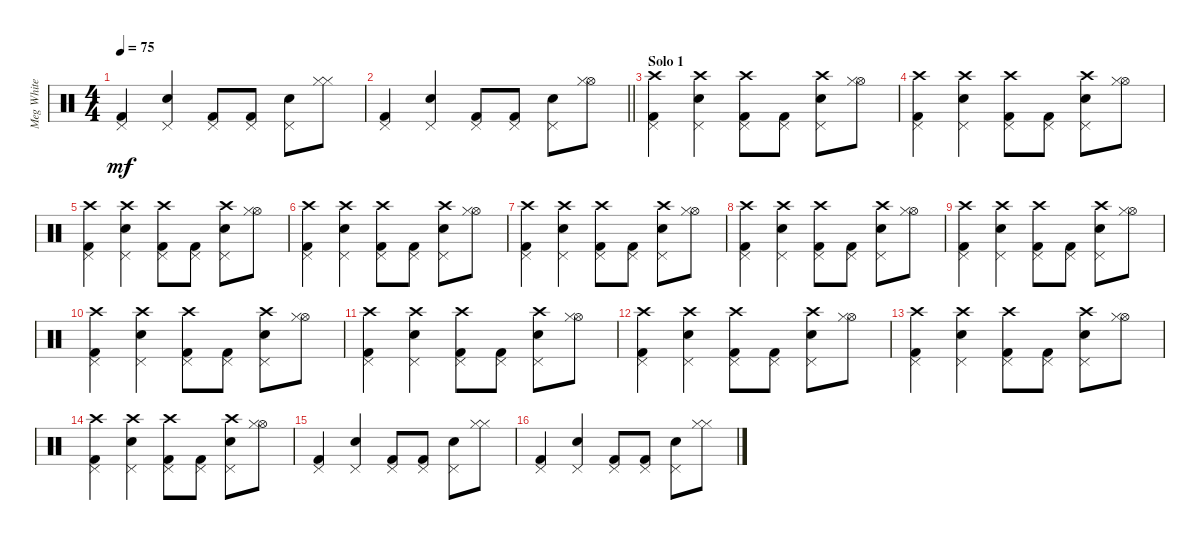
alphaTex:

\track ("Meg White" "Meg White") {instrument percussion}
\staff {score}
\articulation defaults
\ts (4 4)
\tempo 75
\clef neutral
\ks c
("Pedal Hi-Hat (hit)" "Kick (hit) 2").4{dy mf} ("Pedal Hi-Hat (hit)" "Electric Snare (hit)").4 ("Pedal Hi-Hat (hit)" "Kick (hit) 2").8 ("Pedal Hi-Hat (hit)" "Kick (hit) 2").8 ("Pedal Hi-Hat (hit)" "Electric Snare (hit)").8 ("Hi-Hat (closed)" "Hi-Hat (closed)").8 |
\barLineRight lightlight
("Pedal Hi-Hat (hit)" "Kick (hit) 2").4 ("Pedal Hi-Hat (hit)" "Electric Snare (hit)").4 ("Pedal Hi-Hat (hit)" "Kick (hit) 2").8 ("Pedal Hi-Hat (hit)" "Kick (hit) 2").8 ("Pedal Hi-Hat (hit)" "Electric Snare (hit)").8 ("Hi-Hat (open)" "Hi-Hat (closed)").8 |
\section ("" "Solo 1")
("Pedal Hi-Hat (hit)" "Kick (hit) 2" "Crash high (hit)").4 ("Pedal Hi-Hat (hit)" "Electric Snare (hit)" "Crash high (hit)").4 ("Pedal Hi-Hat (hit)" "Kick (hit) 2" "Crash high (hit)").8 ("Pedal Hi-Hat (hit)" "Kick (hit) 2").8 ("Pedal Hi-Hat (hit)" "Electric Snare (hit)" "Crash high (hit)").8 ("Hi-Hat (open)" "Hi-Hat (closed)").8 |
("Pedal Hi-Hat (hit)" "Kick (hit) 2" "Crash high (hit)").4 ("Pedal Hi-Hat (hit)" "Electric Snare (hit)" "Crash high (hit)").4 ("Pedal Hi-Hat (hit)" "Kick (hit) 2" "Crash high (hit)").8 ("Pedal Hi-Hat (hit)" "Kick (hit) 2").8 ("Pedal Hi-Hat (hit)" "Electric Snare (hit)" "Crash high (hit)").8 ("Hi-Hat (open)" "Hi-Hat (closed)").8 |
("Pedal Hi-Hat (hit)" "Kick (hit) 2" "Crash high (hit)").4 ("Pedal Hi-Hat (hit)" "Electric Snare (hit)" "Crash high (hit)").4 ("Pedal Hi-Hat (hit)" "Kick (hit) 2" "Crash high (hit)").8 ("Pedal Hi-Hat (hit)" "Kick (hit) 2").8 ("Pedal Hi-Hat (hit)" "Electric Snare (hit)" "Crash high (hit)").8 ("Hi-Hat (open)" "Hi-Hat (closed)").8 |
("Pedal Hi-Hat (hit)" "Kick (hit) 2" "Crash high (hit)").4 ("Pedal Hi-Hat (hit)" "Electric Snare (hit)" "Crash high (hit)").4 ("Pedal Hi-Hat (hit)" "Kick (hit) 2" "Crash high (hit)").8 ("Pedal Hi-Hat (hit)" "Kick (hit) 2").8 ("Pedal Hi-Hat (hit)" "Electric Snare (hit)" "Crash high (hit)").8 ("Hi-Hat (open)" "Hi-Hat (closed)").8 |
("Pedal Hi-Hat (hit)" "Kick (hit) 2" "Crash high (hit)").4 ("Pedal Hi-Hat (hit)" "Electric Snare (hit)" "Crash high (hit)").4 ("Pedal Hi-Hat (hit)" "Kick (hit) 2" "Crash high (hit)").8 ("Pedal Hi-Hat (hit)" "Kick (hit) 2").8 ("Pedal Hi-Hat (hit)" "Electric Snare (hit)" "Crash high (hit)").8 ("Hi-Hat (open)" "Hi-Hat (closed)").8 |
("Pedal Hi-Hat (hit)" "Kick (hit) 2" "Crash high (hit)").4 ("Pedal Hi-Hat (hit)" "Electric Snare (hit)" "Crash high (hit)").4 ("Pedal Hi-Hat (hit)" "Kick (hit) 2" "Crash high (hit)").8 ("Pedal Hi-Hat (hit)" "Kick (hit) 2").8 ("Pedal Hi-Hat (hit)" "Electric Snare (hit)" "Crash high (hit)").8 ("Hi-Hat (open)" "Hi-Hat (closed)").8 |
("Pedal Hi-Hat (hit)" "Kick (hit) 2" "Crash high (hit)").4 ("Pedal Hi-Hat (hit)" "Electric Snare (hit)" "Crash high (hit)").4 ("Pedal Hi-Hat (hit)" "Kick (hit) 2" "Crash high (hit)").8 ("Pedal Hi-Hat (hit)" "Kick (hit) 2").8 ("Pedal Hi-Hat (hit)" "Electric Snare (hit)" "Crash high (hit)").8 ("Hi-Hat (open)" "Hi-Hat (closed)").8 |
("Pedal Hi-Hat (hit)" "Kick (hit) 2" "Crash high (hit)").4 ("Pedal Hi-Hat (hit)" "Electric Snare (hit)" "Crash high (hit)").4 ("Pedal Hi-Hat (hit)" "Kick (hit) 2" "Crash high (hit)").8 ("Pedal Hi-Hat (hit)" "Kick (hit) 2").8 ("Pedal Hi-Hat (hit)" "Electric Snare (hit)" "Crash high (hit)").8 ("Hi-Hat (open)" "Hi-Hat (closed)").8 |
("Pedal Hi-Hat (hit)" "Kick (hit) 2" "Crash high (hit)").4 ("Pedal Hi-Hat (hit)" "Electric Snare (hit)" "Crash high (hit)").4 ("Pedal Hi-Hat (hit)" "Kick (hit) 2" "Crash high (hit)").8 ("Pedal Hi-Hat (hit)" "Kick (hit) 2").8 ("Pedal Hi-Hat (hit)" "Electric Snare (hit)" "Crash high (hit)").8 ("Hi-Hat (open)" "Hi-Hat (closed)").8 |
("Pedal Hi-Hat (hit)" "Kick (hit) 2" "Crash high (hit)").4 ("Pedal Hi-Hat (hit)" "Electric Snare (hit)" "Crash high (hit)").4 ("Pedal Hi-Hat (hit)" "Kick (hit) 2" "Crash high (hit)").8 ("Pedal Hi-Hat (hit)" "Kick (hit) 2").8 ("Pedal Hi-Hat (hit)" "Electric Snare (hit)" "Crash high (hit)").8 ("Hi-Hat (open)" "Hi-Hat (closed)").8 |
("Pedal Hi-Hat (hit)" "Kick (hit) 2" "Crash high (hit)").4 ("Pedal Hi-Hat (hit)" "Electric Snare (hit)" "Crash high (hit)").4 ("Pedal Hi-Hat (hit)" "Kick (hit) 2" "Crash high (hit)").8 ("Pedal Hi-Hat (hit)" "Kick (hit) 2").8 ("Pedal Hi-Hat (hit)" "Electric Snare (hit)" "Crash high (hit)").8 ("Hi-Hat (open)" "Hi-Hat (closed)").8 |
("Pedal Hi-Hat (hit)" "Kick (hit) 2" "Crash high (hit)").4 ("Pedal Hi-Hat (hit)" "Electric Snare (hit)" "Crash high (hit)").4 ("Pedal Hi-Hat (hit)" "Kick (hit) 2" "Crash high (hit)").8 ("Pedal Hi-Hat (hit)" "Kick (hit) 2").8 ("Pedal Hi-Hat (hit)" "Electric Snare (hit)" "Crash high (hit)").8 ("Hi-Hat (open)" "Hi-Hat (closed)").8 |
("Pedal Hi-Hat (hit)" "Kick (hit) 2").4 ("Pedal Hi-Hat (hit)" "Electric Snare (hit)").4 ("Pedal Hi-Hat (hit)" "Kick (hit) 2").8 ("Pedal Hi-Hat (hit)" "Kick (hit) 2").8 ("Pedal Hi-Hat (hit)" "Electric Snare (hit)").8 ("Hi-Hat (closed)" "Hi-Hat (closed)").8 |
("Pedal Hi-Hat (hit)" "Kick (hit) 2").4 ("Pedal Hi-Hat (hit)" "Electric Snare (hit)").4 ("Pedal Hi-Hat (hit)" "Kick (hit) 2").8 ("Pedal Hi-Hat (hit)" "Kick (hit) 2").8 ("Pedal Hi-Hat (hit)" "Electric Snare (hit)").8 ("Hi-Hat (closed)" "Hi-Hat (closed)").8
